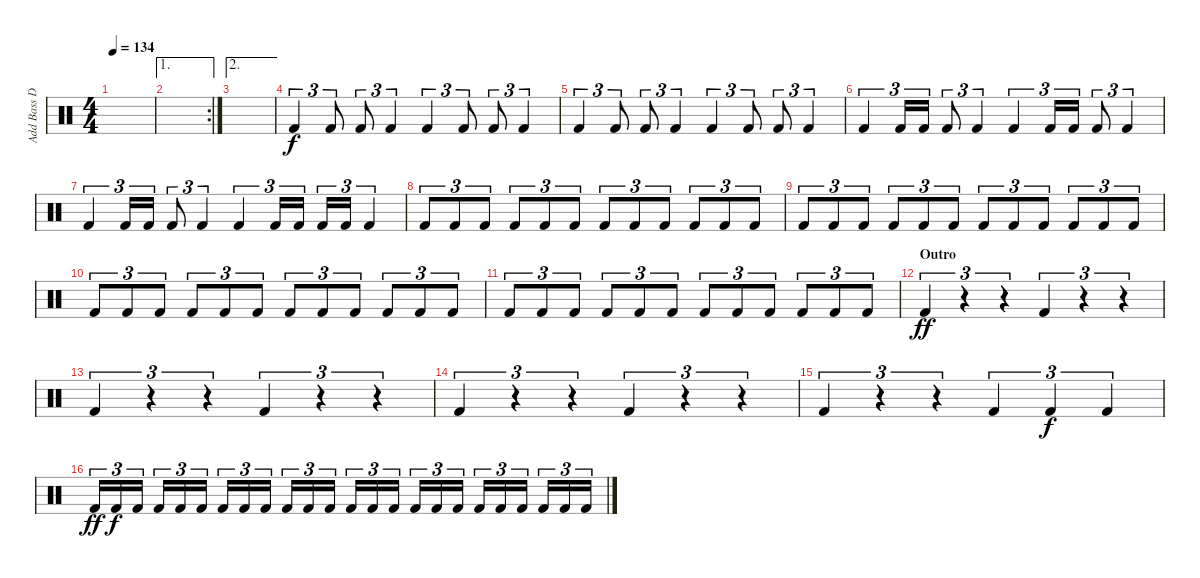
\track ("Add Bass Drum" "Add Bass D") {instrument percussion}
\staff {score}
\articulation defaults
\ts (4 4)
\tempo 134
\clef neutral
\ks c
|
\ae 1
\rc 2
|
\ae 2
|
"Kick (hit) 2".4{tu (3 2)} "Kick (hit) 2".8{tu (3 2)} "Kick (hit) 2".8{tu (3 2)} "Kick (hit) 2".4{tu (3 2)} "Kick (hit) 2".4{tu (3 2)} "Kick (hit) 2".8{tu (3 2)} "Kick (hit) 2".8{tu (3 2)} "Kick (hit) 2".4{tu (3 2)} |
"Kick (hit) 2".4{tu (3 2)} "Kick (hit) 2".8{tu (3 2)} "Kick (hit) 2".8{tu (3 2)} "Kick (hit) 2".4{tu (3 2)} "Kick (hit) 2".4{tu (3 2)} "Kick (hit) 2".8{tu (3 2)} "Kick (hit) 2".8{tu (3 2)} "Kick (hit) 2".4{tu (3 2)} |
"Kick (hit) 2".4{tu (3 2)} "Kick (hit) 2".16{tu (3 2)} "Kick (hit) 2".16{tu (3 2)} "Kick (hit) 2".8{tu (3 2)} "Kick (hit) 2".4{tu (3 2)} "Kick (hit) 2".4{tu (3 2)} "Kick (hit) 2".16{tu (3 2)} "Kick (hit) 2".16{tu (3 2)} "Kick (hit) 2".8{tu (3 2)} "Kick (hit) 2".4{tu (3 2)} |
"Kick (hit) 2".4{tu (3 2)} "Kick (hit) 2".16{tu (3 2)} "Kick (hit) 2".16{tu (3 2)} "Kick (hit) 2".8{tu (3 2)} "Kick (hit) 2".4{tu (3 2)} "Kick (hit) 2".4{tu (3 2)} "Kick (hit) 2".16{tu (3 2)} "Kick (hit) 2".16{tu (3 2)} "Kick (hit) 2".16{tu (3 2)} "Kick (hit) 2".16{tu (3 2)} "Kick (hit) 2".4{tu (3 2)} |
"Kick (hit) 2".8{tu (3 2)} "Kick (hit) 2".8{tu (3 2)} "Kick (hit) 2".8{tu (3 2)} "Kick (hit) 2".8{tu (3 2)} "Kick (hit) 2".8{tu (3 2)} "Kick (hit) 2".8{tu (3 2)} "Kick (hit) 2".8{tu (3 2)} "Kick (hit) 2".8{tu (3 2)} "Kick (hit) 2".8{tu (3 2)} "Kick (hit) 2".8{tu (3 2)} "Kick (hit) 2".8{tu (3 2)} "Kick (hit) 2".8{tu (3 2)} |
"Kick (hit) 2".8{tu (3 2)} "Kick (hit) 2".8{tu (3 2)} "Kick (hit) 2".8{tu (3 2)} "Kick (hit) 2".8{tu (3 2)} "Kick (hit) 2".8{tu (3 2)} "Kick (hit) 2".8{tu (3 2)} "Kick (hit) 2".8{tu (3 2)} "Kick (hit) 2".8{tu (3 2)} "Kick (hit) 2".8{tu (3 2)} "Kick (hit) 2".8{tu (3 2)} "Kick (hit) 2".8{tu (3 2)} "Kick (hit) 2".8{tu (3 2)} |
"Kick (hit) 2".8{tu (3 2)} "Kick (hit) 2".8{tu (3 2)} "Kick (hit) 2".8{tu (3 2)} "Kick (hit) 2".8{tu (3 2)} "Kick (hit) 2".8{tu (3 2)} "Kick (hit) 2".8{tu (3 2)} "Kick (hit) 2".8{tu (3 2)} "Kick (hit) 2".8{tu (3 2)} "Kick (hit) 2".8{tu (3 2)} "Kick (hit) 2".8{tu (3 2)} "Kick (hit) 2".8{tu (3 2)} "Kick (hit) 2".8{tu (3 2)} |
"Kick (hit) 2".8{tu (3 2)} "Kick (hit) 2".8{tu (3 2)} "Kick (hit) 2".8{tu (3 2)} "Kick (hit) 2".8{tu (3 2)} "Kick (hit) 2".8{tu (3 2)} "Kick (hit) 2".8{tu (3 2)} "Kick (hit) 2".8{tu (3 2)} "Kick (hit) 2".8{tu (3 2)} "Kick (hit) 2".8{tu (3 2)} "Kick (hit) 2".8{tu (3 2)} "Kick (hit) 2".8{tu (3 2)} "Kick (hit) 2".8{tu (3 2)} |
\section ("" "Outro")
"Kick (hit) 2".4{tu (3 2) dy ff} r.4{tu (3 2)} r.4{tu (3 2)} "Kick (hit) 2".4{tu (3 2)} r.4{tu (3 2)} r.4{tu (3 2)} |
"Kick (hit) 2".4{tu (3 2)} r.4{tu (3 2)} r.4{tu (3 2)} "Kick (hit) 2".4{tu (3 2)} r.4{tu (3 2)} r.4{tu (3 2)} |
"Kick (hit) 2".4{tu (3 2)} r.4{tu (3 2)} r.4{tu (3 2)} "Kick (hit) 2".4{tu (3 2)} r.4{tu (3 2)} r.4{tu (3 2)} |
"Kick (hit) 2".4{tu (3 2)} r.4{tu (3 2)} r.4{tu (3 2)} "Kick (hit) 2".4{tu (3 2)} "Kick (hit) 2".4{tu (3 2) dy f} "Kick (hit) 2".4{tu (3 2)} |
"Kick (hit) 2".16{tu (3 2) dy ff} "Kick (hit) 2".16{tu (3 2) dy f} "Kick (hit) 2".16{tu (3 2)} "Kick (hit) 2".16{tu (3 2)} "Kick (hit) 2".16{tu (3 2)} "Kick (hit) 2".16{tu (3 2)} "Kick (hit) 2".16{tu (3 2)} "Kick (hit) 2".16{tu (3 2)} "Kick (hit) 2".16{tu (3 2)} "Kick (hit) 2".16{tu (3 2)} "Kick (hit) 2".16{tu (3 2)} "Kick (hit) 2".16{tu (3 2)} "Kick (hit) 2".16{tu (3 2)} "Kick (hit) 2".16{tu (3 2)} "Kick (hit) 2".16{tu (3 2)} "Kick (hit) 2".16{tu (3 2)} "Kick (hit) 2".16{tu (3 2)} "Kick (hit) 2".16{tu (3 2)} "Kick (hit) 2".16{tu (3 2)} "Kick (hit) 2".16{tu (3 2)} "Kick (hit) 2".16{tu (3 2)} "Kick (hit) 2".16{tu (3 2)} "Kick (hit) 2".16{tu (3 2)} "Kick (hit) 2".16{tu (3 2)}
